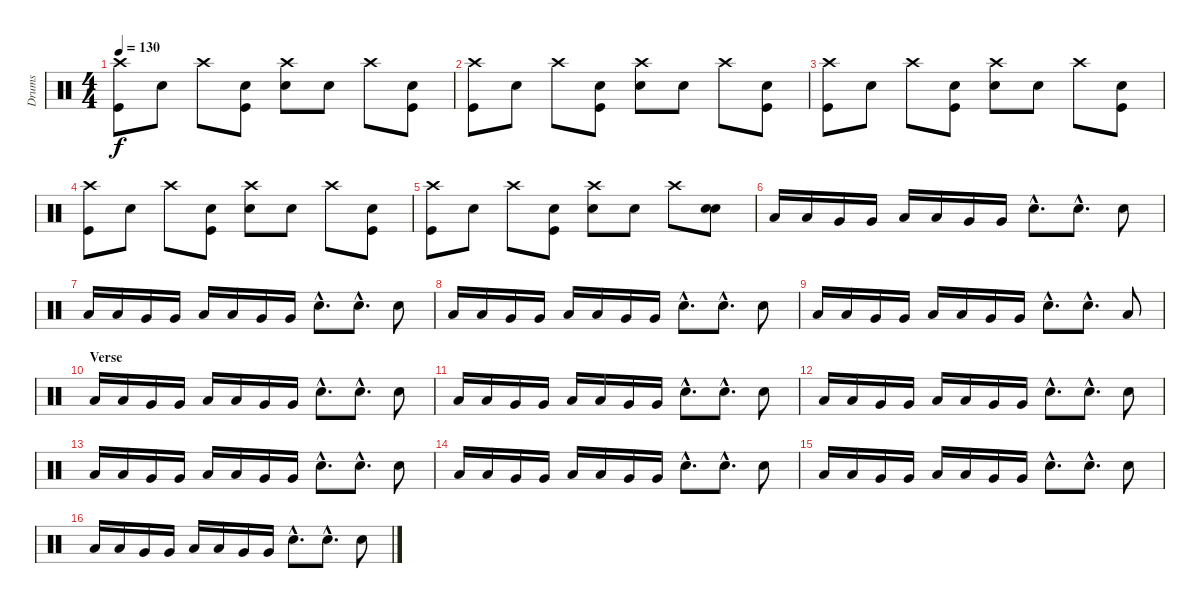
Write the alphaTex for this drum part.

\track ("Drums" "Drums") {instrument percussion}
\staff {score}
\articulation defaults
\ts (4 4)
\tempo 130
\clef neutral
\ks c
("Crash high (hit)" "Kick (hit)").8{dy f} "Snare (hit)"{x}.8 "Crash high (hit)".8 ("Snare (hit)"{x} "Kick (hit)").8 ("Crash high (hit)" "Electric Snare (hit)").8 "Snare (hit)"{x}.8 "Crash high (hit)".8 ("Snare (hit)"{x} "Kick (hit)").8 |
("Crash high (hit)" "Kick (hit)").8 "Snare (hit)"{x}.8 "Crash high (hit)".8 ("Snare (hit)"{x} "Kick (hit)").8 ("Crash high (hit)" "Electric Snare (hit)").8 "Snare (hit)"{x}.8 "Crash high (hit)".8 ("Snare (hit)"{x} "Kick (hit)").8 |
("Crash high (hit)" "Kick (hit)").8 "Snare (hit)"{x}.8 "Crash high (hit)".8 ("Snare (hit)"{x} "Kick (hit)").8 ("Crash high (hit)" "Electric Snare (hit)").8 "Snare (hit)"{x}.8 "Crash high (hit)".8 ("Snare (hit)"{x} "Kick (hit)").8 |
("Crash high (hit)" "Kick (hit)").8 "Snare (hit)"{x}.8 "Crash high (hit)".8 ("Snare (hit)"{x} "Kick (hit)").8 ("Crash high (hit)" "Electric Snare (hit)").8 "Snare (hit)"{x}.8 "Crash high (hit)".8 ("Snare (hit)"{x} "Kick (hit)").8 |
("Crash high (hit)" "Kick (hit)").8 "Snare (hit)"{x}.8 "Crash high (hit)".8 ("Snare (hit)"{x} "Kick (hit)").8 ("Crash high (hit)" "Electric Snare (hit)").8 "Snare (hit)"{x}.8 "Crash high (hit)".8 ("Snare (hit)"{x} "Electric Snare (hit)").8 |
"Low Tom (hit)".16 "Low Tom (hit)".16 "Very Low Tom (hit)".16 "Very Low Tom (hit)".16 "Low Tom (hit)".16 "Low Tom (hit)".16 "Very Low Tom (hit)".16 "Very Low Tom (hit)".16 "Electric Snare (hit)"{hac}.8{d} "Electric Snare (hit)"{hac}.8{d} "Electric Snare (hit)".8 |
"Low Tom (hit)".16 "Low Tom (hit)".16 "Very Low Tom (hit)".16 "Very Low Tom (hit)".16 "Low Tom (hit)".16 "Low Tom (hit)".16 "Very Low Tom (hit)".16 "Very Low Tom (hit)".16 "Electric Snare (hit)"{hac}.8{d} "Electric Snare (hit)"{hac}.8{d} "Electric Snare (hit)".8 |
"Low Tom (hit)".16 "Low Tom (hit)".16 "Very Low Tom (hit)".16 "Very Low Tom (hit)".16 "Low Tom (hit)".16 "Low Tom (hit)".16 "Very Low Tom (hit)".16 "Very Low Tom (hit)".16 "Electric Snare (hit)"{hac}.8{d} "Electric Snare (hit)"{hac}.8{d} "Electric Snare (hit)".8 |
"Low Tom (hit)".16 "Low Tom (hit)".16 "Very Low Tom (hit)".16 "Very Low Tom (hit)".16 "Low Tom (hit)".16 "Low Tom (hit)".16 "Very Low Tom (hit)".16 "Very Low Tom (hit)".16 "Electric Snare (hit)"{hac}.8{d} "Electric Snare (hit)"{hac}.8{d} "Low Floor Tom (hit)"{x}.8 |
\section ("" "Verse")
"Low Tom (hit)".16 "Low Tom (hit)".16 "Very Low Tom (hit)".16 "Very Low Tom (hit)".16 "Low Tom (hit)".16 "Low Tom (hit)".16 "Very Low Tom (hit)".16 "Very Low Tom (hit)".16 "Electric Snare (hit)"{hac}.8{d} "Electric Snare (hit)"{hac}.8{d} "Electric Snare (hit)".8 |
"Low Tom (hit)".16 "Low Tom (hit)".16 "Very Low Tom (hit)".16 "Very Low Tom (hit)".16 "Low Tom (hit)".16 "Low Tom (hit)".16 "Very Low Tom (hit)".16 "Very Low Tom (hit)".16 "Electric Snare (hit)"{hac}.8{d} "Electric Snare (hit)"{hac}.8{d} "Electric Snare (hit)".8 |
"Low Tom (hit)".16 "Low Tom (hit)".16 "Very Low Tom (hit)".16 "Very Low Tom (hit)".16 "Low Tom (hit)".16 "Low Tom (hit)".16 "Very Low Tom (hit)".16 "Very Low Tom (hit)".16 "Electric Snare (hit)"{hac}.8{d} "Electric Snare (hit)"{hac}.8{d} "Electric Snare (hit)".8 |
"Low Tom (hit)".16 "Low Tom (hit)".16 "Very Low Tom (hit)".16 "Very Low Tom (hit)".16 "Low Tom (hit)".16 "Low Tom (hit)".16 "Very Low Tom (hit)".16 "Very Low Tom (hit)".16 "Electric Snare (hit)"{hac}.8{d} "Electric Snare (hit)"{hac}.8{d} "Electric Snare (hit)".8 |
"Low Tom (hit)".16 "Low Tom (hit)".16 "Very Low Tom (hit)".16 "Very Low Tom (hit)".16 "Low Tom (hit)".16 "Low Tom (hit)".16 "Very Low Tom (hit)".16 "Very Low Tom (hit)".16 "Electric Snare (hit)"{hac}.8{d} "Electric Snare (hit)"{hac}.8{d} "Electric Snare (hit)".8 |
"Low Tom (hit)".16 "Low Tom (hit)".16 "Very Low Tom (hit)".16 "Very Low Tom (hit)".16 "Low Tom (hit)".16 "Low Tom (hit)".16 "Very Low Tom (hit)".16 "Very Low Tom (hit)".16 "Electric Snare (hit)"{hac}.8{d} "Electric Snare (hit)"{hac}.8{d} "Electric Snare (hit)".8 |
"Low Tom (hit)".16 "Low Tom (hit)".16 "Very Low Tom (hit)".16 "Very Low Tom (hit)".16 "Low Tom (hit)".16 "Low Tom (hit)".16 "Very Low Tom (hit)".16 "Very Low Tom (hit)".16 "Electric Snare (hit)"{hac}.8{d} "Electric Snare (hit)"{hac}.8{d} "Electric Snare (hit)".8
